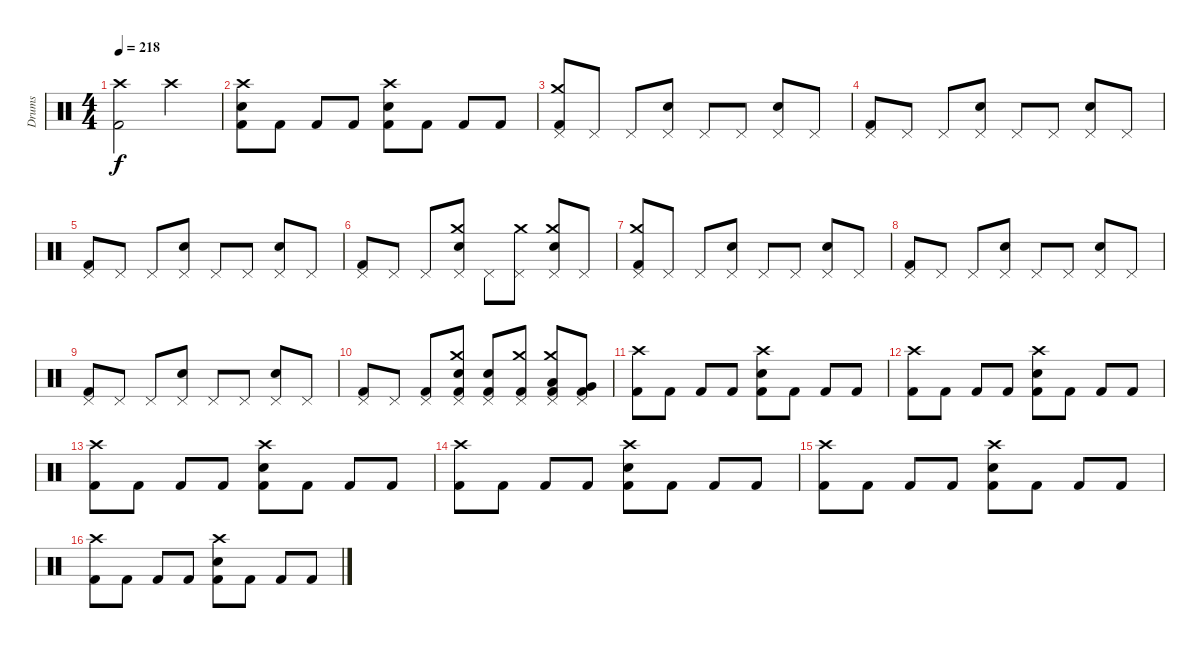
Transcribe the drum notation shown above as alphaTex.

\track ("Drums" "Drums") {instrument percussion}
\staff {score}
\articulation defaults
\ts (4 4)
\tempo 218
\clef neutral
\ks c
("Crash high (hit)" "Kick (hit) 2").2{dy f} "Crash high (hit)".2 |
("Crash high (hit)" "Electric Snare (hit)" "Kick (hit) 2").8 "Kick (hit) 2".8 "Kick (hit) 2".8 "Kick (hit) 2".8 ("Crash high (hit)" "Electric Snare (hit)" "Kick (hit) 2").8 "Kick (hit) 2".8 "Kick (hit) 2".8 "Kick (hit) 2".8 |
("Crash medium (hit)" "Pedal Hi-Hat (hit)" "Kick (hit) 2").8 "Pedal Hi-Hat (hit)".8 "Pedal Hi-Hat (hit)".8 ("Pedal Hi-Hat (hit)" "Electric Snare (hit)").8 "Pedal Hi-Hat (hit)".8 "Pedal Hi-Hat (hit)".8 ("Pedal Hi-Hat (hit)" "Electric Snare (hit)").8 "Pedal Hi-Hat (hit)".8 |
("Pedal Hi-Hat (hit)" "Kick (hit) 2").8 "Pedal Hi-Hat (hit)".8 "Pedal Hi-Hat (hit)".8 ("Pedal Hi-Hat (hit)" "Electric Snare (hit)").8 "Pedal Hi-Hat (hit)".8 "Pedal Hi-Hat (hit)".8 ("Pedal Hi-Hat (hit)" "Electric Snare (hit)").8 "Pedal Hi-Hat (hit)".8 |
("Pedal Hi-Hat (hit)" "Kick (hit) 2").8 "Pedal Hi-Hat (hit)".8 "Pedal Hi-Hat (hit)".8 ("Pedal Hi-Hat (hit)" "Electric Snare (hit)").8 "Pedal Hi-Hat (hit)".8 "Pedal Hi-Hat (hit)".8 ("Pedal Hi-Hat (hit)" "Electric Snare (hit)").8 "Pedal Hi-Hat (hit)".8 |
("Pedal Hi-Hat (hit)" "Kick (hit) 2").8 "Pedal Hi-Hat (hit)".8 "Pedal Hi-Hat (hit)".8 ("Crash medium (hit)" "Pedal Hi-Hat (hit)" "Electric Snare (hit)").8 "Pedal Hi-Hat (hit)".8 ("Crash medium (hit)" "Pedal Hi-Hat (hit)").8 ("Crash medium (hit)" "Pedal Hi-Hat (hit)" "Electric Snare (hit)").8 "Pedal Hi-Hat (hit)".8 |
("Crash medium (hit)" "Pedal Hi-Hat (hit)" "Kick (hit) 2").8 "Pedal Hi-Hat (hit)".8 "Pedal Hi-Hat (hit)".8 ("Pedal Hi-Hat (hit)" "Electric Snare (hit)").8 "Pedal Hi-Hat (hit)".8 "Pedal Hi-Hat (hit)".8 ("Pedal Hi-Hat (hit)" "Electric Snare (hit)").8 "Pedal Hi-Hat (hit)".8 |
("Pedal Hi-Hat (hit)" "Kick (hit) 2").8 "Pedal Hi-Hat (hit)".8 "Pedal Hi-Hat (hit)".8 ("Pedal Hi-Hat (hit)" "Electric Snare (hit)").8 "Pedal Hi-Hat (hit)".8 "Pedal Hi-Hat (hit)".8 ("Pedal Hi-Hat (hit)" "Electric Snare (hit)").8 "Pedal Hi-Hat (hit)".8 |
("Pedal Hi-Hat (hit)" "Kick (hit) 2").8 "Pedal Hi-Hat (hit)".8 "Pedal Hi-Hat (hit)".8 ("Pedal Hi-Hat (hit)" "Electric Snare (hit)").8 "Pedal Hi-Hat (hit)".8 "Pedal Hi-Hat (hit)".8 ("Pedal Hi-Hat (hit)" "Electric Snare (hit)").8 "Pedal Hi-Hat (hit)".8 |
("Pedal Hi-Hat (hit)" "Kick (hit) 2").8 "Pedal Hi-Hat (hit)".8 ("Pedal Hi-Hat (hit)" "Kick (hit) 2").8 ("Crash medium (hit)" "Pedal Hi-Hat (hit)" "Electric Snare (hit)" "Kick (hit) 2").8 ("Pedal Hi-Hat (hit)" "Electric Snare (hit)" "Kick (hit) 2").8 ("Crash medium (hit)" "Pedal Hi-Hat (hit)" "Kick (hit) 2").8 ("Crash medium (hit)" "Pedal Hi-Hat (hit)" "Low Tom (hit)" "Kick (hit) 2").8 ("Pedal Hi-Hat (hit)" "Very Low Tom (hit)" "Kick (hit) 2").8 |
("Crash high (hit)" "Kick (hit) 2").8 "Kick (hit) 2".8 "Kick (hit) 2".8 "Kick (hit) 2".8 ("Crash high (hit)" "Electric Snare (hit)" "Kick (hit) 2").8 "Kick (hit) 2".8 "Kick (hit) 2".8 "Kick (hit) 2".8 |
("Crash high (hit)" "Kick (hit) 2").8 "Kick (hit) 2".8 "Kick (hit) 2".8 "Kick (hit) 2".8 ("Crash high (hit)" "Electric Snare (hit)" "Kick (hit) 2").8 "Kick (hit) 2".8 "Kick (hit) 2".8 "Kick (hit) 2".8 |
("Crash high (hit)" "Kick (hit) 2").8 "Kick (hit) 2".8 "Kick (hit) 2".8 "Kick (hit) 2".8 ("Crash high (hit)" "Electric Snare (hit)" "Kick (hit) 2").8 "Kick (hit) 2".8 "Kick (hit) 2".8 "Kick (hit) 2".8 |
("Crash high (hit)" "Kick (hit) 2").8 "Kick (hit) 2".8 "Kick (hit) 2".8 "Kick (hit) 2".8 ("Crash high (hit)" "Electric Snare (hit)" "Kick (hit) 2").8 "Kick (hit) 2".8 "Kick (hit) 2".8 "Kick (hit) 2".8 |
("Crash high (hit)" "Kick (hit) 2").8 "Kick (hit) 2".8 "Kick (hit) 2".8 "Kick (hit) 2".8 ("Crash high (hit)" "Electric Snare (hit)" "Kick (hit) 2").8 "Kick (hit) 2".8 "Kick (hit) 2".8 "Kick (hit) 2".8 |
("Crash high (hit)" "Kick (hit) 2").8 "Kick (hit) 2".8 "Kick (hit) 2".8 "Kick (hit) 2".8 ("Crash high (hit)" "Electric Snare (hit)" "Kick (hit) 2").8 "Kick (hit) 2".8 "Kick (hit) 2".8 "Kick (hit) 2".8
